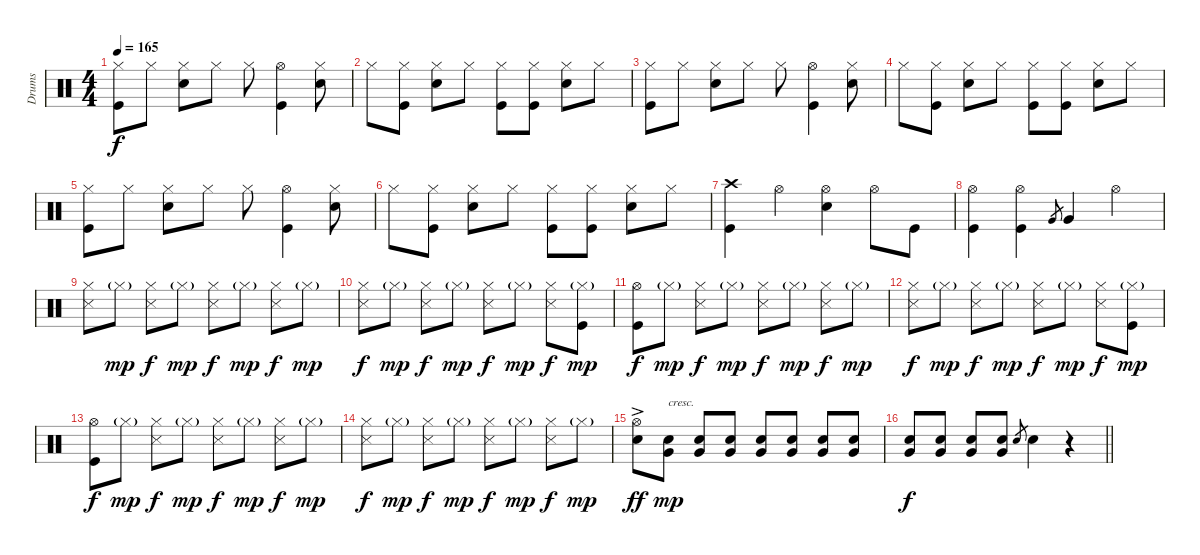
\track ("Drums" "Drums") {instrument percussion}
\staff {score}
\articulation defaults
\ts (4 4)
\tempo 165
\clef neutral
\ks c
("Hi-Hat (closed)" "Kick (hit)").8{dy f} "Hi-Hat (closed)".8 ("Hi-Hat (closed)" "Snare (hit) 2").8 "Hi-Hat (closed)".8 "Hi-Hat (closed)".8 ("Hi-Hat (open)" "Kick (hit)").4 ("Hi-Hat (closed)" "Snare (hit) 2").8 |
"Hi-Hat (closed)".8 ("Hi-Hat (closed)" "Kick (hit)").8 ("Hi-Hat (closed)" "Snare (hit) 2").8 "Hi-Hat (closed)".8 ("Hi-Hat (closed)" "Kick (hit)").8 ("Hi-Hat (closed)" "Kick (hit)").8 ("Hi-Hat (closed)" "Snare (hit) 2").8 "Hi-Hat (closed)".8 |
("Hi-Hat (closed)" "Kick (hit)").8 "Hi-Hat (closed)".8 ("Hi-Hat (closed)" "Snare (hit) 2").8 "Hi-Hat (closed)".8 "Hi-Hat (closed)".8 ("Hi-Hat (open)" "Kick (hit)").4 ("Hi-Hat (closed)" "Snare (hit) 2").8 |
"Hi-Hat (closed)".8 ("Hi-Hat (closed)" "Kick (hit)").8 ("Hi-Hat (closed)" "Snare (hit) 2").8 "Hi-Hat (closed)".8 ("Hi-Hat (closed)" "Kick (hit)").8 ("Hi-Hat (closed)" "Kick (hit)").8 ("Hi-Hat (closed)" "Snare (hit) 2").8 "Hi-Hat (closed)".8 |
("Hi-Hat (closed)" "Kick (hit)").8 "Hi-Hat (closed)".8 ("Hi-Hat (closed)" "Snare (hit) 2").8 "Hi-Hat (closed)".8 "Hi-Hat (closed)".8 ("Hi-Hat (open)" "Kick (hit)").4 ("Hi-Hat (closed)" "Snare (hit) 2").8 |
"Hi-Hat (closed)".8 ("Hi-Hat (closed)" "Kick (hit)").8 ("Hi-Hat (closed)" "Snare (hit) 2").8 "Hi-Hat (closed)".8 ("Hi-Hat (closed)" "Kick (hit)").8 ("Hi-Hat (closed)" "Kick (hit)").8 ("Hi-Hat (closed)" "Snare (hit) 2").8 "Hi-Hat (closed)".8 |
("Crash high (hit)" "Kick (hit)").4 "Hi-Hat (open)".4 ("Hi-Hat (open)" "Snare (hit) 2").4 "Hi-Hat (open)".8 "Kick (hit)".8 |
("Kick (hit)" "Hi-Hat (open)").4 ("Hi-Hat (open)" "Kick (hit)").4 "Very Low Tom (hit)".8{gr} "Very Low Tom (hit)".4 "Hi-Hat (open)".4 |
("Hi-Hat (closed)" "Snare (side stick) 3").8 "Hi-Hat (closed)"{g}.8{dy mp} ("Hi-Hat (closed)" "Snare (side stick) 3").8{dy f} "Hi-Hat (closed)"{g}.8{dy mp} ("Hi-Hat (closed)" "Snare (side stick) 3").8{dy f} "Hi-Hat (closed)"{g}.8{dy mp} ("Hi-Hat (closed)" "Snare (side stick) 3").8{dy f} "Hi-Hat (closed)"{g}.8{dy mp} |
("Hi-Hat (closed)" "Snare (side stick) 3").8{dy f} "Hi-Hat (closed)"{g}.8{dy mp} ("Hi-Hat (closed)" "Snare (side stick) 3").8{dy f} "Hi-Hat (closed)"{g}.8{dy mp} ("Hi-Hat (closed)" "Snare (side stick) 3").8{dy f} "Hi-Hat (closed)"{g}.8{dy mp} ("Hi-Hat (closed)" "Snare (side stick) 3").8{dy f} ("Hi-Hat (closed)"{g} "Kick (hit)").8{dy mp} |
("Hi-Hat (open)" "Kick (hit)").8{dy f} "Hi-Hat (closed)"{g}.8{dy mp} ("Hi-Hat (closed)" "Snare (side stick) 3").8{dy f} "Hi-Hat (closed)"{g}.8{dy mp} ("Hi-Hat (closed)" "Snare (side stick) 3").8{dy f} "Hi-Hat (closed)"{g}.8{dy mp} ("Hi-Hat (closed)" "Snare (side stick) 3").8{dy f} "Hi-Hat (closed)"{g}.8{dy mp} |
("Hi-Hat (closed)" "Snare (side stick) 3").8{dy f} "Hi-Hat (closed)"{g}.8{dy mp} ("Hi-Hat (closed)" "Snare (side stick) 3").8{dy f} "Hi-Hat (closed)"{g}.8{dy mp} ("Hi-Hat (closed)" "Snare (side stick) 3").8{dy f} "Hi-Hat (closed)"{g}.8{dy mp} ("Hi-Hat (closed)" "Snare (side stick) 3").8{dy f} ("Hi-Hat (closed)"{g} "Kick (hit)").8{dy mp} |
("Hi-Hat (open)" "Kick (hit)").8{dy f} "Hi-Hat (closed)"{g}.8{dy mp} ("Hi-Hat (closed)" "Snare (side stick) 3").8{dy f} "Hi-Hat (closed)"{g}.8{dy mp} ("Hi-Hat (closed)" "Snare (side stick) 3").8{dy f} "Hi-Hat (closed)"{g}.8{dy mp} ("Hi-Hat (closed)" "Snare (side stick) 3").8{dy f} "Hi-Hat (closed)"{g}.8{dy mp} |
("Hi-Hat (closed)" "Snare (side stick) 3").8{dy f} "Hi-Hat (closed)"{g}.8{dy mp} ("Hi-Hat (closed)" "Snare (side stick) 3").8{dy f} "Hi-Hat (closed)"{g}.8{dy mp} ("Hi-Hat (closed)" "Snare (side stick) 3").8{dy f} "Hi-Hat (closed)"{g}.8{dy mp} ("Hi-Hat (closed)" "Snare (side stick) 3").8{dy f} "Hi-Hat (closed)"{g}.8{dy mp} |
("Hi-Hat (open)" "Snare (hit) 2"{ac}).8{dy ff} ("Very Low Tom (hit)" "Snare (hit) 2").8{txt "cresc." dy mp} ("Very Low Tom (hit)" "Snare (hit) 2").8 ("Very Low Tom (hit)" "Snare (hit) 2").8 ("Very Low Tom (hit)" "Snare (hit) 2").8 ("Very Low Tom (hit)" "Snare (hit) 2").8 ("Very Low Tom (hit)" "Snare (hit) 2").8 ("Very Low Tom (hit)" "Snare (hit) 2").8 |
\barLineRight lightlight
("Very Low Tom (hit)" "Snare (hit) 2").8{dy f} ("Very Low Tom (hit)" "Snare (hit) 2").8 ("Very Low Tom (hit)" "Snare (hit) 2").8 ("Very Low Tom (hit)" "Snare (hit) 2").8 "Snare (hit) 2".8{gr} "Snare (hit) 2".4 r.4
